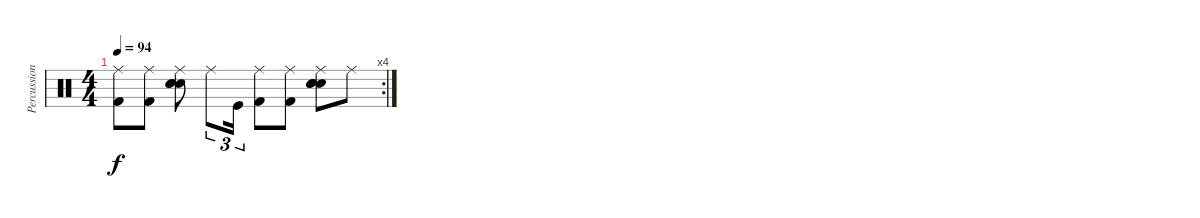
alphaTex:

\track ("Percussions" "Percussion") {instrument percussion}
\staff {score}
\articulation defaults
\rc 4
\ts (4 4)
\tempo 94
\clef neutral
\ks c
("Ride (middle)" "Kick (hit) 2").8{dy f} ("Ride (middle)" "Kick (hit) 2").8 ("Ride (middle)" "Hand Clap (hit)" "Snare (hit) 2" "Electric Snare (hit)").8 "Ride (middle)".8{tu (3 2)} "Kick (hit)".16{tu (3 2)} ("Ride (middle)" "Kick (hit) 2").8 ("Ride (middle)" "Kick (hit) 2").8 ("Ride (middle)" "Hand Clap (hit)" "Snare (hit) 2" "Electric Snare (hit)").8 "Ride (middle)".8
